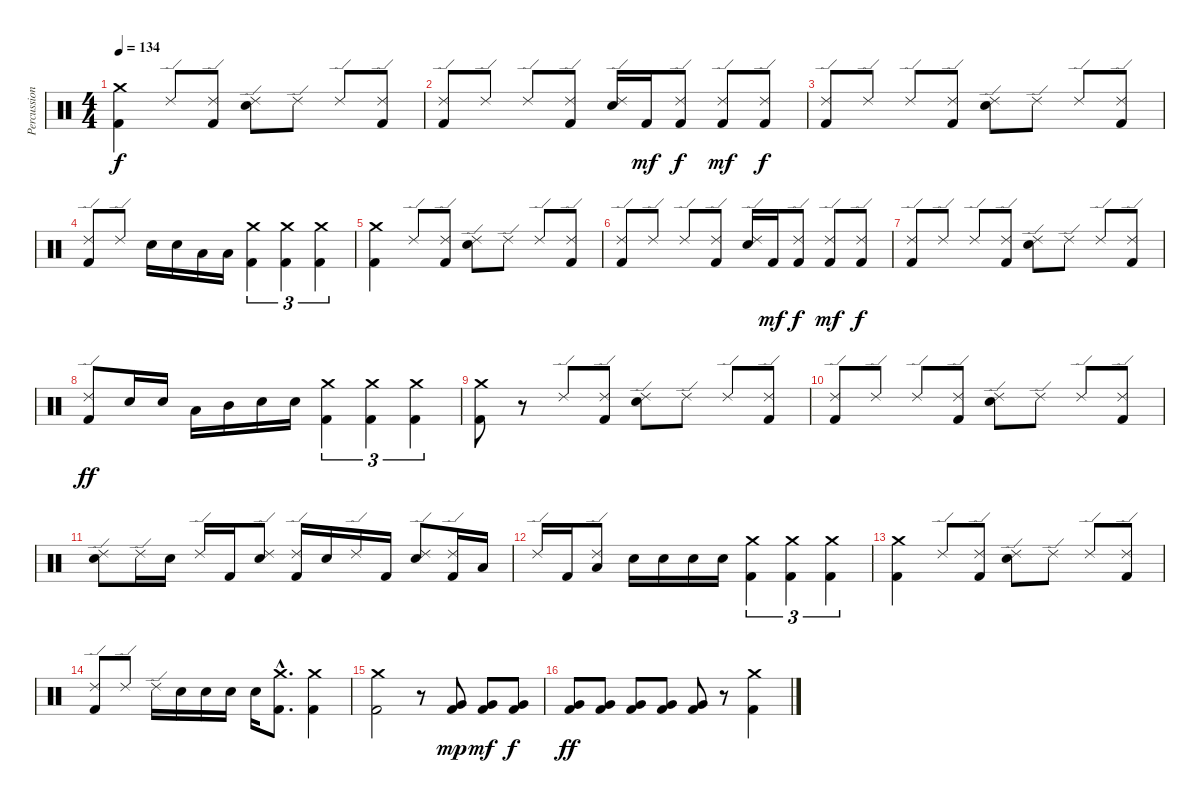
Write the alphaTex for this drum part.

\track ("Percussion" "Percussion") {instrument percussion}
\staff {score}
\articulation defaults
\ts (4 4)
\tempo 134
\clef neutral
\ks c
("Kick (hit) 2" "Crash medium (hit)").4{dy f} "Ride (edge) 2".8 ("Kick (hit) 2" "Ride (edge) 2").8 ("Electric Snare (hit)" "Ride (edge) 2").8 "Ride (edge) 2".8 "Ride (edge) 2".8 ("Kick (hit) 2" "Ride (edge) 2").8 |
("Kick (hit) 2" "Ride (edge) 2").8 "Ride (edge) 2".8 "Ride (edge) 2".8 ("Kick (hit) 2" "Ride (edge) 2").8 ("Electric Snare (hit)" "Ride (edge) 2").16 "Kick (hit) 2".16{dy mf} ("Kick (hit) 2" "Ride (edge) 2").8{dy f} ("Kick (hit) 2" "Ride (edge) 2").8{dy mf} ("Kick (hit) 2" "Ride (edge) 2").8{dy f} |
("Kick (hit) 2" "Ride (edge) 2").8 "Ride (edge) 2".8 "Ride (edge) 2".8 ("Kick (hit) 2" "Ride (edge) 2").8 ("Electric Snare (hit)" "Ride (edge) 2").8 "Ride (edge) 2".8 "Ride (edge) 2".8 ("Kick (hit) 2" "Ride (edge) 2").8 |
("Kick (hit) 2" "Ride (edge) 2").8 "Ride (edge) 2".8 "Electric Snare (hit)".16 "Electric Snare (hit)".16 "Low Tom (hit)".16 "Low Tom (hit)".16 ("Kick (hit) 2" "Crash medium (hit)").4{tu (3 2)} ("Kick (hit) 2" "Crash medium (hit)").4{tu (3 2)} ("Kick (hit) 2" "Crash medium (hit)").4{tu (3 2)} |
("Kick (hit) 2" "Crash medium (hit)").4 "Ride (edge) 2".8 ("Kick (hit) 2" "Ride (edge) 2").8 ("Electric Snare (hit)" "Ride (edge) 2").8 "Ride (edge) 2".8 "Ride (edge) 2".8 ("Kick (hit) 2" "Ride (edge) 2").8 |
("Kick (hit) 2" "Ride (edge) 2").8 "Ride (edge) 2".8 "Ride (edge) 2".8 ("Kick (hit) 2" "Ride (edge) 2").8 ("Electric Snare (hit)" "Ride (edge) 2").16 "Kick (hit) 2".16{dy mf} ("Kick (hit) 2" "Ride (edge) 2").8{dy f} ("Kick (hit) 2" "Ride (edge) 2").8{dy mf} ("Kick (hit) 2" "Ride (edge) 2").8{dy f} |
("Kick (hit) 2" "Ride (edge) 2").8 "Ride (edge) 2".8 "Ride (edge) 2".8 ("Kick (hit) 2" "Ride (edge) 2").8 ("Electric Snare (hit)" "Ride (edge) 2").8 "Ride (edge) 2".8 "Ride (edge) 2".8 ("Kick (hit) 2" "Ride (edge) 2").8 |
("Kick (hit) 2" "Ride (edge) 2").8{dy ff} "Electric Snare (hit)".16 "Electric Snare (hit)".16 "Low Tom (hit)".16 "Mid Tom (hit)".16 "Electric Snare (hit)".16 "Electric Snare (hit)".16 ("Kick (hit) 2" "Crash medium (hit)").4{tu (3 2)} ("Kick (hit) 2" "Crash medium (hit)").4{tu (3 2)} ("Kick (hit) 2" "Crash medium (hit)").4{tu (3 2)} |
("Kick (hit) 2" "Crash medium (hit)").8 r.8 "Ride (edge) 2".8 ("Kick (hit) 2" "Ride (edge) 2").8 ("Electric Snare (hit)" "Ride (edge) 2").8 "Ride (edge) 2".8 "Ride (edge) 2".8 ("Kick (hit) 2" "Ride (edge) 2").8 |
("Kick (hit) 2" "Ride (edge) 2").8 "Ride (edge) 2".8 "Ride (edge) 2".8 ("Kick (hit) 2" "Ride (edge) 2").8 ("Electric Snare (hit)" "Ride (edge) 2").8 "Ride (edge) 2".8 "Ride (edge) 2".8 ("Kick (hit) 2" "Ride (edge) 2").8 |
("Electric Snare (hit)" "Ride (edge) 2").8 "Ride (edge) 2".16 "Electric Snare (hit)".16 "Ride (edge) 2".16 "Kick (hit) 2".16 ("Electric Snare (hit)" "Ride (edge) 2").8 ("Kick (hit) 2" "Ride (edge) 2").16 "Electric Snare (hit)".16 "Ride (edge) 2".16 "Kick (hit) 2".16 ("Electric Snare (hit)" "Ride (edge) 2").8 ("Kick (hit) 2" "Ride (edge) 2").16 "Low Tom (hit)".16 |
"Ride (edge) 2".16 "Kick (hit) 2".16 ("Low Tom (hit)" "Ride (edge) 2").8 "Electric Snare (hit)".16 "Electric Snare (hit)".16 "Electric Snare (hit)".16 "Electric Snare (hit)".16 ("Kick (hit) 2" "Crash medium (hit)").4{tu (3 2)} ("Kick (hit) 2" "Crash medium (hit)").4{tu (3 2)} ("Kick (hit) 2" "Crash medium (hit)").4{tu (3 2)} |
("Kick (hit) 2" "Crash medium (hit)").4 "Ride (edge) 2".8 ("Kick (hit) 2" "Ride (edge) 2").8 ("Electric Snare (hit)" "Ride (edge) 2").8 "Ride (edge) 2".8 "Ride (edge) 2".8 ("Kick (hit) 2" "Ride (edge) 2").8 |
("Kick (hit) 2" "Ride (edge) 2").8 "Ride (edge) 2".8 "Ride (edge) 2".16 "Electric Snare (hit)".16 "Electric Snare (hit)".16 "Electric Snare (hit)".16 "Electric Snare (hit)".16 ("Kick (hit) 2"{hac} "Crash medium (hit)"{hac}).8{d} ("Kick (hit) 2" "Crash medium (hit)").4 |
("Kick (hit) 2" "Crash medium (hit)").2 r.8 ("Kick (hit) 2" "Very Low Tom (hit)").8{dy mp} ("Kick (hit) 2" "Very Low Tom (hit)").8{dy mf} ("Kick (hit) 2" "Very Low Tom (hit)").8{dy f} |
("Kick (hit) 2" "Very Low Tom (hit)").8{dy ff} ("Kick (hit) 2" "Very Low Tom (hit)").8 ("Kick (hit) 2" "Very Low Tom (hit)").8 ("Kick (hit) 2" "Very Low Tom (hit)").8 ("Kick (hit) 2" "Very Low Tom (hit)").8 r.8 ("Kick (hit) 2" "Crash medium (hit)").4
